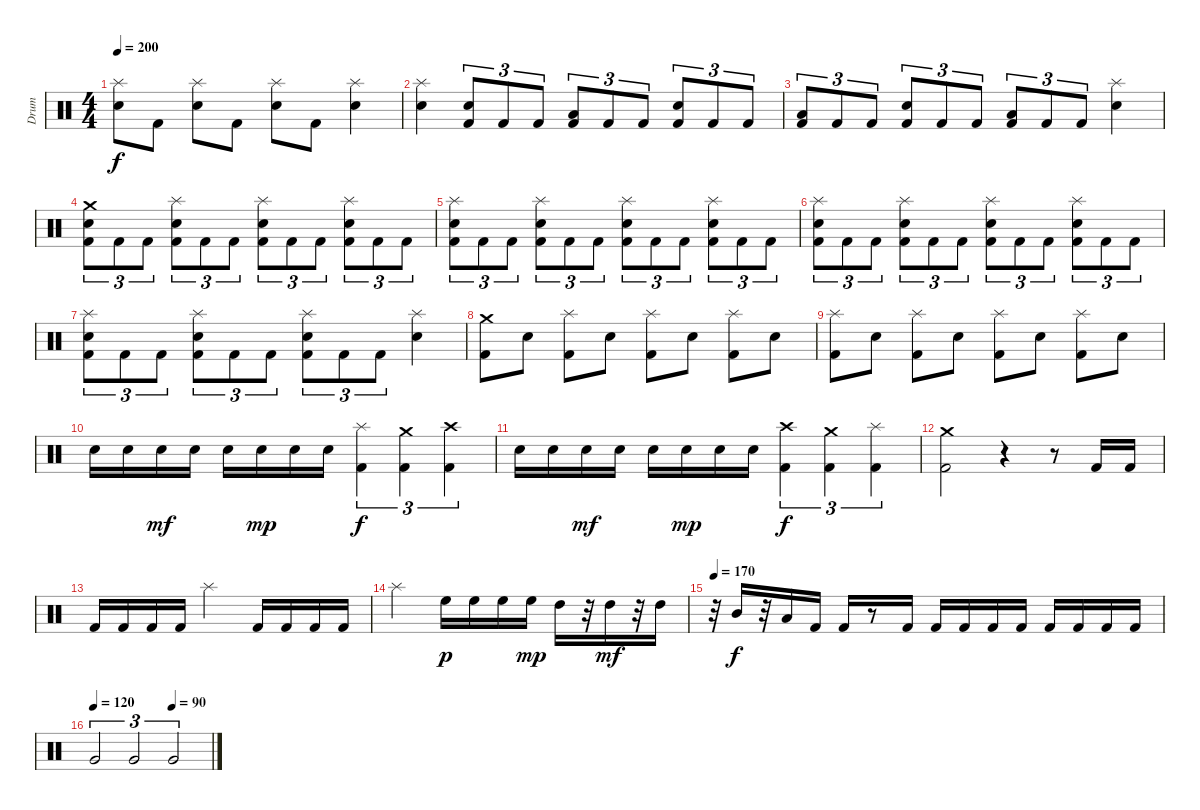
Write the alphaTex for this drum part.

\track ("Drum" "Drum") {instrument percussion}
\staff {score}
\articulation defaults
\ts (4 4)
\tempo 200
\clef neutral
\ks c
("Splash (hit)" "Electric Snare (hit)").8{dy f} "Kick (hit) 2".8 ("Splash (hit)" "Electric Snare (hit)").8 "Kick (hit) 2".8 ("Splash (hit)" "Electric Snare (hit)").8 "Kick (hit) 2".8 ("Splash (hit)" "Electric Snare (hit)").4 |
("Splash (hit)" "Electric Snare (hit)").4 ("Electric Snare (hit)" "Kick (hit) 2").8{tu (3 2)} "Kick (hit) 2".8{tu (3 2)} "Kick (hit) 2".8{tu (3 2)} ("Low Tom (hit)" "Kick (hit) 2").8{tu (3 2)} "Kick (hit) 2".8{tu (3 2)} "Kick (hit) 2".8{tu (3 2)} ("Electric Snare (hit)" "Kick (hit) 2").8{tu (3 2)} "Kick (hit) 2".8{tu (3 2)} "Kick (hit) 2".8{tu (3 2)} |
("Low Tom (hit)" "Kick (hit) 2").8{tu (3 2)} "Kick (hit) 2".8{tu (3 2)} "Kick (hit) 2".8{tu (3 2)} ("Electric Snare (hit)" "Kick (hit) 2").8{tu (3 2)} "Kick (hit) 2".8{tu (3 2)} "Kick (hit) 2".8{tu (3 2)} ("Low Tom (hit)" "Kick (hit) 2").8{tu (3 2)} "Kick (hit) 2".8{tu (3 2)} "Kick (hit) 2".8{tu (3 2)} ("Splash (hit)" "Electric Snare (hit)").4 |
("Crash medium (hit)" "Electric Snare (hit)" "Kick (hit) 2").8{tu (3 2)} "Kick (hit) 2".8{tu (3 2)} "Kick (hit) 2".8{tu (3 2)} ("Splash (hit)" "Electric Snare (hit)" "Kick (hit) 2").8{tu (3 2)} "Kick (hit) 2".8{tu (3 2)} "Kick (hit) 2".8{tu (3 2)} ("Splash (hit)" "Electric Snare (hit)" "Kick (hit) 2").8{tu (3 2)} "Kick (hit) 2".8{tu (3 2)} "Kick (hit) 2".8{tu (3 2)} ("Splash (hit)" "Electric Snare (hit)" "Kick (hit) 2").8{tu (3 2)} "Kick (hit) 2".8{tu (3 2)} "Kick (hit) 2".8{tu (3 2)} |
("Splash (hit)" "Electric Snare (hit)" "Kick (hit) 2").8{tu (3 2)} "Kick (hit) 2".8{tu (3 2)} "Kick (hit) 2".8{tu (3 2)} ("Splash (hit)" "Electric Snare (hit)" "Kick (hit) 2").8{tu (3 2)} "Kick (hit) 2".8{tu (3 2)} "Kick (hit) 2".8{tu (3 2)} ("Splash (hit)" "Electric Snare (hit)" "Kick (hit) 2").8{tu (3 2)} "Kick (hit) 2".8{tu (3 2)} "Kick (hit) 2".8{tu (3 2)} ("Splash (hit)" "Electric Snare (hit)" "Kick (hit) 2").8{tu (3 2)} "Kick (hit) 2".8{tu (3 2)} "Kick (hit) 2".8{tu (3 2)} |
("Splash (hit)" "Electric Snare (hit)" "Kick (hit) 2").8{tu (3 2)} "Kick (hit) 2".8{tu (3 2)} "Kick (hit) 2".8{tu (3 2)} ("Splash (hit)" "Electric Snare (hit)" "Kick (hit) 2").8{tu (3 2)} "Kick (hit) 2".8{tu (3 2)} "Kick (hit) 2".8{tu (3 2)} ("Splash (hit)" "Electric Snare (hit)" "Kick (hit) 2").8{tu (3 2)} "Kick (hit) 2".8{tu (3 2)} "Kick (hit) 2".8{tu (3 2)} ("Splash (hit)" "Electric Snare (hit)" "Kick (hit) 2").8{tu (3 2)} "Kick (hit) 2".8{tu (3 2)} "Kick (hit) 2".8{tu (3 2)} |
("Splash (hit)" "Electric Snare (hit)" "Kick (hit) 2").8{tu (3 2)} "Kick (hit) 2".8{tu (3 2)} "Kick (hit) 2".8{tu (3 2)} ("Splash (hit)" "Electric Snare (hit)" "Kick (hit) 2").8{tu (3 2)} "Kick (hit) 2".8{tu (3 2)} "Kick (hit) 2".8{tu (3 2)} ("Splash (hit)" "Electric Snare (hit)" "Kick (hit) 2").8{tu (3 2)} "Kick (hit) 2".8{tu (3 2)} "Kick (hit) 2".8{tu (3 2)} ("Splash (hit)" "Electric Snare (hit)").4 |
("Crash medium (hit)" "Kick (hit) 2").8 "Electric Snare (hit)".8 ("Splash (hit)" "Kick (hit) 2").8 "Electric Snare (hit)".8 ("Splash (hit)" "Kick (hit) 2").8 "Electric Snare (hit)".8 ("Splash (hit)" "Kick (hit) 2").8 "Electric Snare (hit)".8 |
("Splash (hit)" "Kick (hit) 2").8 "Electric Snare (hit)".8 ("Splash (hit)" "Kick (hit) 2").8 "Electric Snare (hit)".8 ("Splash (hit)" "Kick (hit) 2").8 "Electric Snare (hit)".8 ("Splash (hit)" "Kick (hit) 2").8 "Electric Snare (hit)".8 |
"Electric Snare (hit)".16 "Electric Snare (hit)".16 "Electric Snare (hit)".16{dy mf} "Electric Snare (hit)".16 "Electric Snare (hit)".16 "Electric Snare (hit)".16{dy mp} "Electric Snare (hit)".16 "Electric Snare (hit)".16 ("Splash (hit)" "Kick (hit) 2").4{tu (3 2) dy f} ("Crash medium (hit)" "Kick (hit) 2").4{tu (3 2)} ("Crash high (hit)" "Kick (hit) 2").4{tu (3 2)} |
"Electric Snare (hit)".16 "Electric Snare (hit)".16 "Electric Snare (hit)".16{dy mf} "Electric Snare (hit)".16 "Electric Snare (hit)".16 "Electric Snare (hit)".16{dy mp} "Electric Snare (hit)".16 "Electric Snare (hit)".16 ("Crash high (hit)" "Kick (hit) 2").4{tu (3 2) dy f} ("Crash medium (hit)" "Kick (hit) 2").4{tu (3 2)} ("Splash (hit)" "Kick (hit) 2").4{tu (3 2)} |
("Crash medium (hit)" "Kick (hit) 2").2 r.4 r.8 "Kick (hit) 2".16 "Kick (hit) 2".16 |
"Kick (hit) 2".16 "Kick (hit) 2".16 "Kick (hit) 2".16 "Kick (hit) 2".16 "Splash (hit)".2 "Kick (hit) 2".16 "Kick (hit) 2".16 "Kick (hit) 2".16 "Kick (hit) 2".16 |
"Splash (hit)".2 "High Floor Tom (hit)".16{dy p} "High Floor Tom (hit)".16 "High Floor Tom (hit)".16 "High Floor Tom (hit)".16{dy mp} "High Tom (hit)".16 r.32 "High Tom (hit)".16{dy mf} r.32 "High Tom (hit)".16 |
\tempo 170
r.32 "Mid Tom (hit)".16{dy f} r.32 "Low Tom (hit)".16 "Kick (hit) 2".16 "Kick (hit) 2".16 r.8 "Kick (hit) 2".16 "Kick (hit) 2".16 "Kick (hit) 2".16 "Kick (hit) 2".16 "Kick (hit) 2".16 "Kick (hit) 2".16 "Kick (hit) 2".16 "Kick (hit) 2".16 "Kick (hit) 2".16 |
\tempo 120
\tempo (90 0.6666666666666666)
"Very Low Tom (hit)".2{tu (3 2)} "Very Low Tom (hit)".2{tu (3 2)} "Very Low Tom (hit)".2{tu (3 2)}
